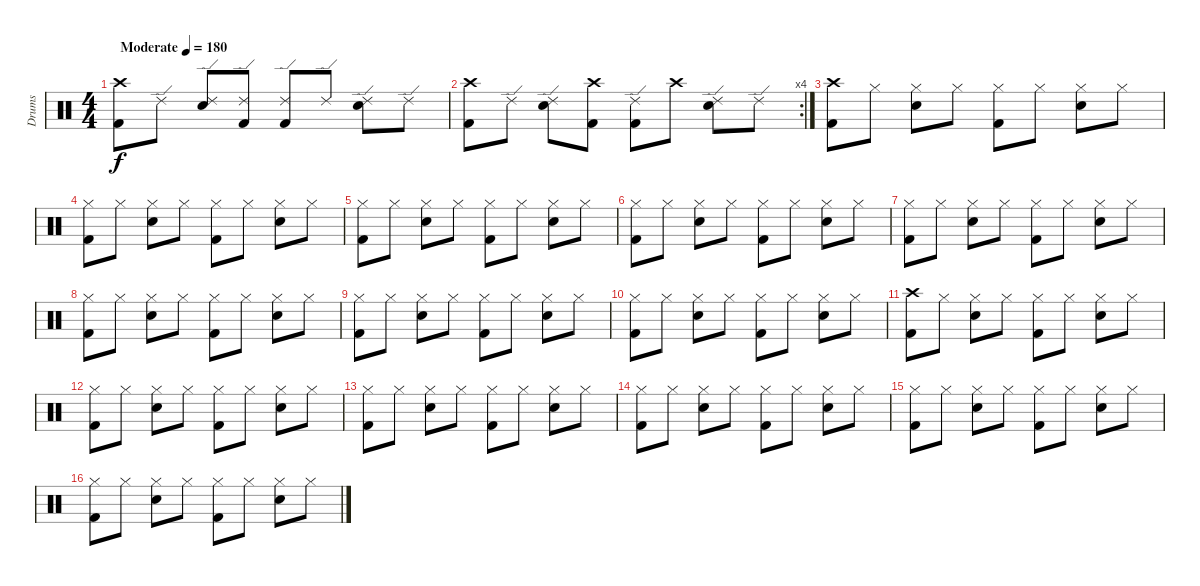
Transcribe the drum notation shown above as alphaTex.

\track ("Drums" "Drums") {instrument percussion}
\staff {score}
\articulation defaults
\ts (4 4)
\tempo (180 "Moderate")
\clef neutral
\ks c
("Crash high (hit)" "Kick (hit) 2").8{dy f} "Ride (edge) 2".8 ("Ride (edge) 2" "Electric Snare (hit)").8 ("Ride (edge) 2" "Kick (hit) 2").8 ("Ride (edge) 2" "Kick (hit) 2").8 "Ride (edge) 2".8 ("Ride (edge) 2" "Electric Snare (hit)").8 "Ride (edge) 2".8 |
\rc 4
("Crash high (hit)" "Kick (hit) 2").8 "Ride (edge) 2".8 ("Ride (edge) 2" "Electric Snare (hit)").8 ("Crash high (hit)" "Kick (hit) 2").8 ("Ride (edge) 2" "Kick (hit) 2").8 "Crash high (hit)".8 ("Ride (edge) 2" "Electric Snare (hit)").8 "Ride (edge) 2".8 |
("Crash high (hit)" "Kick (hit) 2").8 "Hi-Hat (closed)".8 ("Hi-Hat (closed)" "Electric Snare (hit)").8 "Hi-Hat (closed)".8 ("Hi-Hat (closed)" "Kick (hit) 2").8 "Hi-Hat (closed)".8 ("Hi-Hat (closed)" "Electric Snare (hit)").8 "Hi-Hat (closed)".8 |
("Hi-Hat (closed)" "Kick (hit) 2").8 "Hi-Hat (closed)".8 ("Hi-Hat (closed)" "Electric Snare (hit)").8 "Hi-Hat (closed)".8 ("Hi-Hat (closed)" "Kick (hit) 2").8 "Hi-Hat (closed)".8 ("Hi-Hat (closed)" "Electric Snare (hit)").8 "Hi-Hat (closed)".8 |
("Hi-Hat (closed)" "Kick (hit) 2").8 "Hi-Hat (closed)".8 ("Hi-Hat (closed)" "Electric Snare (hit)").8 "Hi-Hat (closed)".8 ("Hi-Hat (closed)" "Kick (hit) 2").8 "Hi-Hat (closed)".8 ("Hi-Hat (closed)" "Electric Snare (hit)").8 "Hi-Hat (closed)".8 |
("Hi-Hat (closed)" "Kick (hit) 2").8 "Hi-Hat (closed)".8 ("Hi-Hat (closed)" "Electric Snare (hit)").8 "Hi-Hat (closed)".8 ("Hi-Hat (closed)" "Kick (hit) 2").8 "Hi-Hat (closed)".8 ("Hi-Hat (closed)" "Electric Snare (hit)").8 "Hi-Hat (closed)".8 |
("Hi-Hat (closed)" "Kick (hit) 2").8 "Hi-Hat (closed)".8 ("Hi-Hat (closed)" "Electric Snare (hit)").8 "Hi-Hat (closed)".8 ("Hi-Hat (closed)" "Kick (hit) 2").8 "Hi-Hat (closed)".8 ("Hi-Hat (closed)" "Electric Snare (hit)").8 "Hi-Hat (closed)".8 |
("Hi-Hat (closed)" "Kick (hit) 2").8 "Hi-Hat (closed)".8 ("Hi-Hat (closed)" "Electric Snare (hit)").8 "Hi-Hat (closed)".8 ("Hi-Hat (closed)" "Kick (hit) 2").8 "Hi-Hat (closed)".8 ("Hi-Hat (closed)" "Electric Snare (hit)").8 "Hi-Hat (closed)".8 |
("Hi-Hat (closed)" "Kick (hit) 2").8 "Hi-Hat (closed)".8 ("Hi-Hat (closed)" "Electric Snare (hit)").8 "Hi-Hat (closed)".8 ("Hi-Hat (closed)" "Kick (hit) 2").8 "Hi-Hat (closed)".8 ("Hi-Hat (closed)" "Electric Snare (hit)").8 "Hi-Hat (closed)".8 |
("Hi-Hat (closed)" "Kick (hit) 2").8 "Hi-Hat (closed)".8 ("Hi-Hat (closed)" "Electric Snare (hit)").8 "Hi-Hat (closed)".8 ("Hi-Hat (closed)" "Kick (hit) 2").8 "Hi-Hat (closed)".8 ("Hi-Hat (closed)" "Electric Snare (hit)").8 "Hi-Hat (closed)".8 |
("Crash high (hit)" "Kick (hit) 2").8 "Hi-Hat (closed)".8 ("Hi-Hat (closed)" "Electric Snare (hit)").8 "Hi-Hat (closed)".8 ("Hi-Hat (closed)" "Kick (hit) 2").8 "Hi-Hat (closed)".8 ("Hi-Hat (closed)" "Electric Snare (hit)").8 "Hi-Hat (closed)".8 |
("Hi-Hat (closed)" "Kick (hit) 2").8 "Hi-Hat (closed)".8 ("Hi-Hat (closed)" "Electric Snare (hit)").8 "Hi-Hat (closed)".8 ("Hi-Hat (closed)" "Kick (hit) 2").8 "Hi-Hat (closed)".8 ("Hi-Hat (closed)" "Electric Snare (hit)").8 "Hi-Hat (closed)".8 |
("Hi-Hat (closed)" "Kick (hit) 2").8 "Hi-Hat (closed)".8 ("Hi-Hat (closed)" "Electric Snare (hit)").8 "Hi-Hat (closed)".8 ("Hi-Hat (closed)" "Kick (hit) 2").8 "Hi-Hat (closed)".8 ("Hi-Hat (closed)" "Electric Snare (hit)").8 "Hi-Hat (closed)".8 |
("Hi-Hat (closed)" "Kick (hit) 2").8 "Hi-Hat (closed)".8 ("Hi-Hat (closed)" "Electric Snare (hit)").8 "Hi-Hat (closed)".8 ("Hi-Hat (closed)" "Kick (hit) 2").8 "Hi-Hat (closed)".8 ("Hi-Hat (closed)" "Electric Snare (hit)").8 "Hi-Hat (closed)".8 |
("Hi-Hat (closed)" "Kick (hit) 2").8 "Hi-Hat (closed)".8 ("Hi-Hat (closed)" "Electric Snare (hit)").8 "Hi-Hat (closed)".8 ("Hi-Hat (closed)" "Kick (hit) 2").8 "Hi-Hat (closed)".8 ("Hi-Hat (closed)" "Electric Snare (hit)").8 "Hi-Hat (closed)".8 |
("Hi-Hat (closed)" "Kick (hit) 2").8 "Hi-Hat (closed)".8 ("Hi-Hat (closed)" "Electric Snare (hit)").8 "Hi-Hat (closed)".8 ("Hi-Hat (closed)" "Kick (hit) 2").8 "Hi-Hat (closed)".8 ("Hi-Hat (closed)" "Electric Snare (hit)").8 "Hi-Hat (closed)".8
